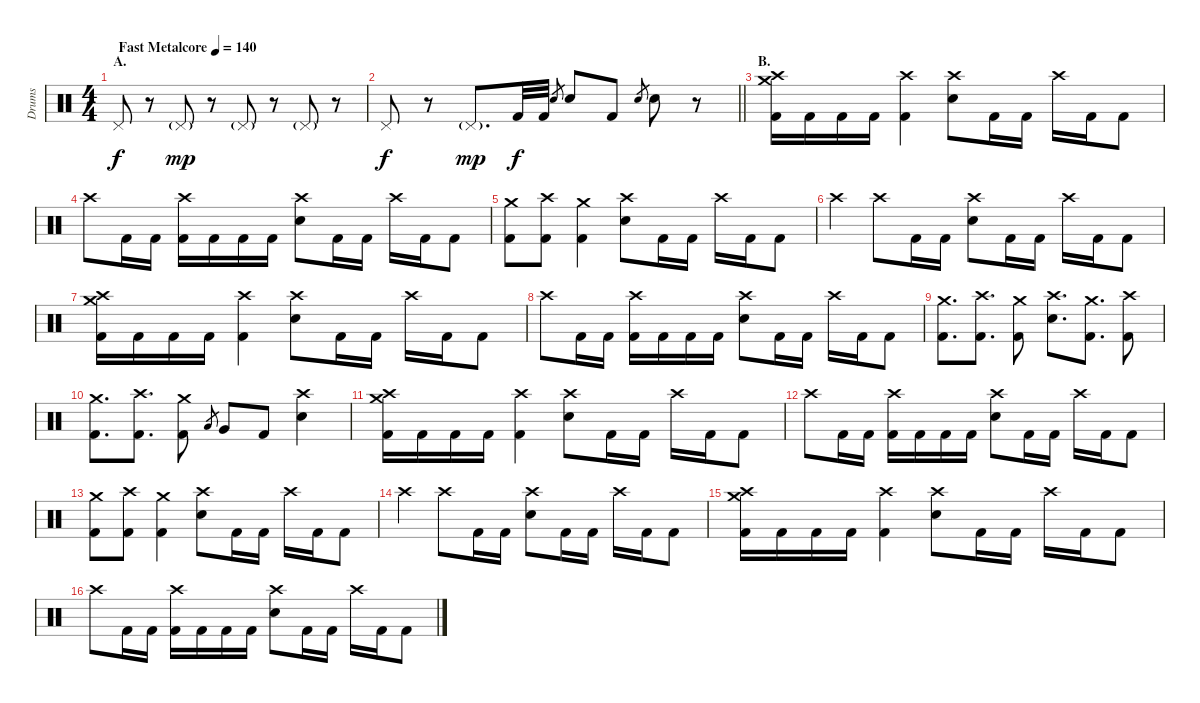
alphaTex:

\track ("Drums" "Drums") {instrument percussion}
\staff {score}
\articulation defaults
\ts (4 4)
\section ("" "A.")
\tempo (140 "Fast Metalcore")
\clef neutral
\ks c "Pedal Hi-Hat (hit)".8{dy f}
r.8 "Pedal Hi-Hat (hit)"{g}.8{dy mp} r.8 "Pedal Hi-Hat (hit)"{g}.8 r.8 "Pedal Hi-Hat (hit)"{g}.8 r.8 |
\barLineRight lightlight "Pedal Hi-Hat (hit)".8{dy f}
r.8 "Pedal Hi-Hat (hit)"{g}.8{d dy mp} "Kick (hit) 2".32{dy f} "Kick (hit) 2".32 "Electric Snare (hit)".8{gr} "Electric Snare (hit)".8 "Kick (hit) 2".8 "Electric Snare (hit)".8{gr} "Electric Snare (hit)".8 r.8 |
\section ("" "B.")
("Crash medium (hit)" "Crash high (hit)" "Kick (hit) 2").16 "Kick (hit) 2".16 "Kick (hit) 2".16 "Kick (hit) 2".16 ("Crash high (hit)" "Kick (hit) 2").4 ("Crash high (hit)" "Electric Snare (hit)").8 "Kick (hit) 2".16 "Kick (hit) 2".16 "Crash high (hit)".16 "Kick (hit) 2".16 "Kick (hit) 2".8 |
"Crash high (hit)".8 "Kick (hit) 2".16 "Kick (hit) 2".16 ("Crash high (hit)" "Kick (hit) 2").16 "Kick (hit) 2".16 "Kick (hit) 2".16 "Kick (hit) 2".16 ("Crash high (hit)" "Electric Snare (hit)").8 "Kick (hit) 2".16 "Kick (hit) 2".16 "Crash high (hit)".16 "Kick (hit) 2".16 "Kick (hit) 2".8 |
("Crash medium (hit)" "Kick (hit) 2").8 ("Crash high (hit)" "Kick (hit) 2").8 ("Crash medium (hit)" "Kick (hit) 2").4 ("Crash high (hit)" "Electric Snare (hit)").8 "Kick (hit) 2".16 "Kick (hit) 2".16 "Crash high (hit)".16 "Kick (hit) 2".16 "Kick (hit) 2".8 |
"Crash high (hit)".4 "Crash high (hit)".8 "Kick (hit) 2".16 "Kick (hit) 2".16 ("Crash high (hit)" "Electric Snare (hit)").8 "Kick (hit) 2".16 "Kick (hit) 2".16 "Crash high (hit)".16 "Kick (hit) 2".16 "Kick (hit) 2".8 |
("Crash medium (hit)" "Crash high (hit)" "Kick (hit) 2").16 "Kick (hit) 2".16 "Kick (hit) 2".16 "Kick (hit) 2".16 ("Crash high (hit)" "Kick (hit) 2").4 ("Crash high (hit)" "Electric Snare (hit)").8 "Kick (hit) 2".16 "Kick (hit) 2".16 "Crash high (hit)".16 "Kick (hit) 2".16 "Kick (hit) 2".8 |
"Crash high (hit)".8 "Kick (hit) 2".16 "Kick (hit) 2".16 ("Crash high (hit)" "Kick (hit) 2").16 "Kick (hit) 2".16 "Kick (hit) 2".16 "Kick (hit) 2".16 ("Crash high (hit)" "Electric Snare (hit)").8 "Kick (hit) 2".16 "Kick (hit) 2".16 "Crash high (hit)".16 "Kick (hit) 2".16 "Kick (hit) 2".8 |
("Crash medium (hit)" "Kick (hit) 2").8{d} ("Crash high (hit)" "Kick (hit) 2").8{d} ("Crash medium (hit)" "Kick (hit) 2").8 ("Crash high (hit)" "Electric Snare (hit)").8{d} ("Crash medium (hit)" "Kick (hit) 2").8{d} ("Crash high (hit)" "Kick (hit) 2").8 |
("Crash medium (hit)" "Kick (hit) 2").8{d} ("Crash high (hit)" "Kick (hit) 2").8{d} ("Crash medium (hit)" "Kick (hit) 2").8 "Low Tom (hit)".8{gr} "Very Low Tom (hit)".8 "Kick (hit) 2".8 ("Crash high (hit)" "Electric Snare (hit)").4 |
("Crash medium (hit)" "Crash high (hit)" "Kick (hit) 2").16 "Kick (hit) 2".16 "Kick (hit) 2".16 "Kick (hit) 2".16 ("Crash high (hit)" "Kick (hit) 2").4 ("Crash high (hit)" "Electric Snare (hit)").8 "Kick (hit) 2".16 "Kick (hit) 2".16 "Crash high (hit)".16 "Kick (hit) 2".16 "Kick (hit) 2".8 |
"Crash high (hit)".8 "Kick (hit) 2".16 "Kick (hit) 2".16 ("Crash high (hit)" "Kick (hit) 2").16 "Kick (hit) 2".16 "Kick (hit) 2".16 "Kick (hit) 2".16 ("Crash high (hit)" "Electric Snare (hit)").8 "Kick (hit) 2".16 "Kick (hit) 2".16 "Crash high (hit)".16 "Kick (hit) 2".16 "Kick (hit) 2".8 |
("Crash medium (hit)" "Kick (hit) 2").8 ("Crash high (hit)" "Kick (hit) 2").8 ("Crash medium (hit)" "Kick (hit) 2").4 ("Crash high (hit)" "Electric Snare (hit)").8 "Kick (hit) 2".16 "Kick (hit) 2".16 "Crash high (hit)".16 "Kick (hit) 2".16 "Kick (hit) 2".8 |
"Crash high (hit)".4 "Crash high (hit)".8 "Kick (hit) 2".16 "Kick (hit) 2".16 ("Crash high (hit)" "Electric Snare (hit)").8 "Kick (hit) 2".16 "Kick (hit) 2".16 "Crash high (hit)".16 "Kick (hit) 2".16 "Kick (hit) 2".8 |
("Crash medium (hit)" "Crash high (hit)" "Kick (hit) 2").16 "Kick (hit) 2".16 "Kick (hit) 2".16 "Kick (hit) 2".16 ("Crash high (hit)" "Kick (hit) 2").4 ("Crash high (hit)" "Electric Snare (hit)").8 "Kick (hit) 2".16 "Kick (hit) 2".16 "Crash high (hit)".16 "Kick (hit) 2".16 "Kick (hit) 2".8 |
"Crash high (hit)".8 "Kick (hit) 2".16 "Kick (hit) 2".16 ("Crash high (hit)" "Kick (hit) 2").16 "Kick (hit) 2".16 "Kick (hit) 2".16 "Kick (hit) 2".16 ("Crash high (hit)" "Electric Snare (hit)").8 "Kick (hit) 2".16 "Kick (hit) 2".16 "Crash high (hit)".16 "Kick (hit) 2".16 "Kick (hit) 2".8
